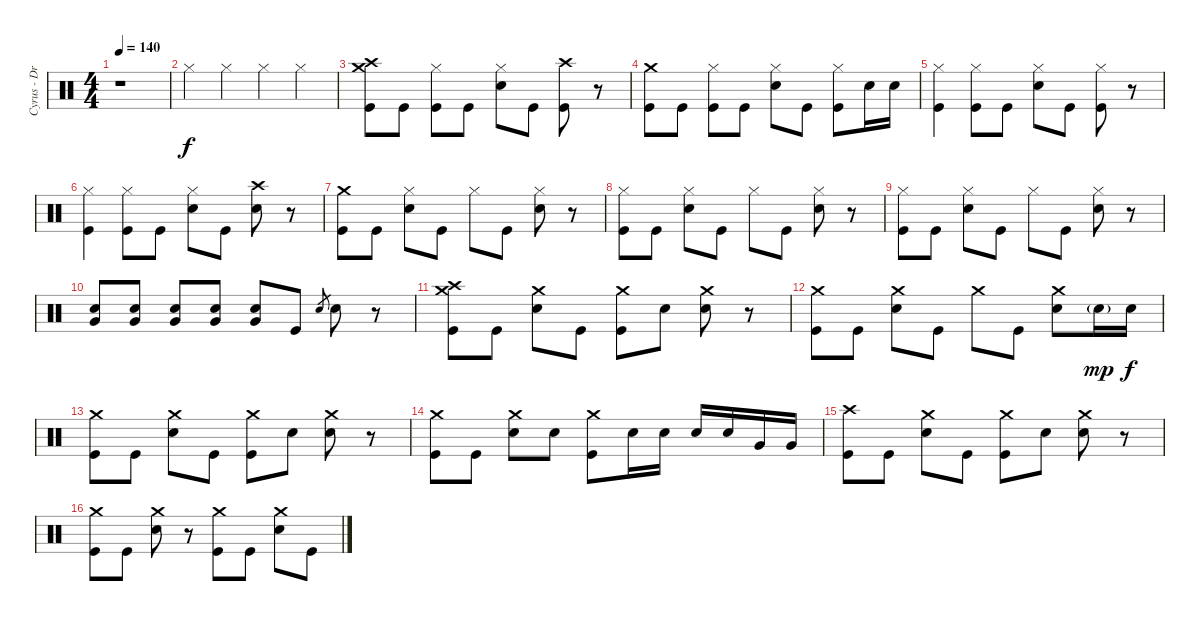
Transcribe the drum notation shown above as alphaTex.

\track ("Cyrus - Drums" "Cyrus - Dr") {instrument percussion}
\staff {score}
\articulation defaults
\ts (4 4)
\tempo 140
\clef neutral
\ks c
r.1{dy f} |
"Hi-Hat (closed)".4 "Hi-Hat (closed)".4 "Hi-Hat (closed)".4 "Hi-Hat (closed)".4 |
("Crash high (hit)" "Crash medium (hit)" "Kick (hit)").8 "Kick (hit)".8 ("Hi-Hat (closed)" "Kick (hit)").8 "Kick (hit)".8 ("Hi-Hat (closed)" "Electric Snare (hit)").8 "Kick (hit)".8 ("Crash high (hit)" "Kick (hit)").8 r.8 |
("Crash medium (hit)" "Kick (hit)").8 "Kick (hit)".8 ("Hi-Hat (closed)" "Kick (hit)").8 "Kick (hit)".8 ("Hi-Hat (closed)" "Electric Snare (hit)").8 "Kick (hit)".8 ("Hi-Hat (closed)" "Kick (hit)").8 "Electric Snare (hit)".16 "Electric Snare (hit)".16 |
("Hi-Hat (closed)" "Kick (hit)").4 ("Hi-Hat (closed)" "Kick (hit)").8 "Kick (hit)".8 ("Hi-Hat (closed)" "Electric Snare (hit)").8 "Kick (hit)".8 ("Hi-Hat (closed)" "Kick (hit)").8 r.8 |
("Hi-Hat (closed)" "Kick (hit)").4 ("Hi-Hat (closed)" "Kick (hit)").8 "Kick (hit)".8 ("Hi-Hat (closed)" "Electric Snare (hit)").8 "Kick (hit)".8 ("Crash high (hit)" "Electric Snare (hit)").8 r.8 |
("Crash medium (hit)" "Kick (hit)").8 "Kick (hit)".8 ("Hi-Hat (closed)" "Electric Snare (hit)").8 "Kick (hit)".8 "Hi-Hat (closed)".8 "Kick (hit)".8 ("Hi-Hat (closed)" "Electric Snare (hit)").8 r.8 |
("Hi-Hat (closed)" "Kick (hit)").8 "Kick (hit)".8 ("Hi-Hat (closed)" "Electric Snare (hit)").8 "Kick (hit)".8 "Hi-Hat (closed)".8 "Kick (hit)".8 ("Hi-Hat (closed)" "Electric Snare (hit)").8 r.8 |
("Hi-Hat (closed)" "Kick (hit)").8 "Kick (hit)".8 ("Hi-Hat (closed)" "Electric Snare (hit)").8 "Kick (hit)".8 "Hi-Hat (closed)".8 "Kick (hit)".8 ("Hi-Hat (closed)" "Electric Snare (hit)").8 r.8 |
("Electric Snare (hit)" "Very Low Tom (hit)").8 ("Electric Snare (hit)" "Very Low Tom (hit)").8 ("Electric Snare (hit)" "Very Low Tom (hit)").8 ("Electric Snare (hit)" "Very Low Tom (hit)").8 ("Electric Snare (hit)" "Very Low Tom (hit)").8 "Kick (hit)".8 "Electric Snare (hit)".8{gr} "Electric Snare (hit)".8 r.8 |
("Crash high (hit)" "Crash medium (hit)" "Kick (hit)").8 "Kick (hit)".8 ("Crash medium (hit)" "Electric Snare (hit)").8 "Kick (hit)".8 ("Crash medium (hit)" "Kick (hit)").8 "Electric Snare (hit)".8 ("Crash medium (hit)" "Electric Snare (hit)").8 r.8 |
("Crash medium (hit)" "Kick (hit)").8 "Kick (hit)".8 ("Crash medium (hit)" "Electric Snare (hit)").8 "Kick (hit)".8 "Crash medium (hit)".8 "Kick (hit)".8 ("Crash medium (hit)" "Electric Snare (hit)").8 "Electric Snare (hit)"{g}.16{dy mp} "Electric Snare (hit)".16{dy f} |
("Crash medium (hit)" "Kick (hit)").8 "Kick (hit)".8 ("Crash medium (hit)" "Electric Snare (hit)").8 "Kick (hit)".8 ("Crash medium (hit)" "Kick (hit)").8 "Electric Snare (hit)".8 ("Crash medium (hit)" "Electric Snare (hit)").8 r.8 |
("Crash medium (hit)" "Kick (hit)").8 "Kick (hit)".8 ("Crash medium (hit)" "Electric Snare (hit)").8 "Electric Snare (hit)".8 ("Crash medium (hit)" "Kick (hit)").8 "Electric Snare (hit)".16 "Electric Snare (hit)".16 "Electric Snare (hit)".16 "Electric Snare (hit)".16 "Very Low Tom (hit)".16 "Very Low Tom (hit)".16 |
("Crash high (hit)" "Kick (hit)").8 "Kick (hit)".8 ("Crash medium (hit)" "Electric Snare (hit)").8 "Kick (hit)".8 ("Crash medium (hit)" "Kick (hit)").8 "Electric Snare (hit)".8 ("Crash medium (hit)" "Electric Snare (hit)").8 r.8 |
("Crash medium (hit)" "Kick (hit)").8 "Kick (hit)".8 ("Crash medium (hit)" "Electric Snare (hit)").8 r.8 ("Crash medium (hit)" "Kick (hit)").8 "Kick (hit)".8 ("Crash medium (hit)" "Electric Snare (hit)").8 "Kick (hit)".8
